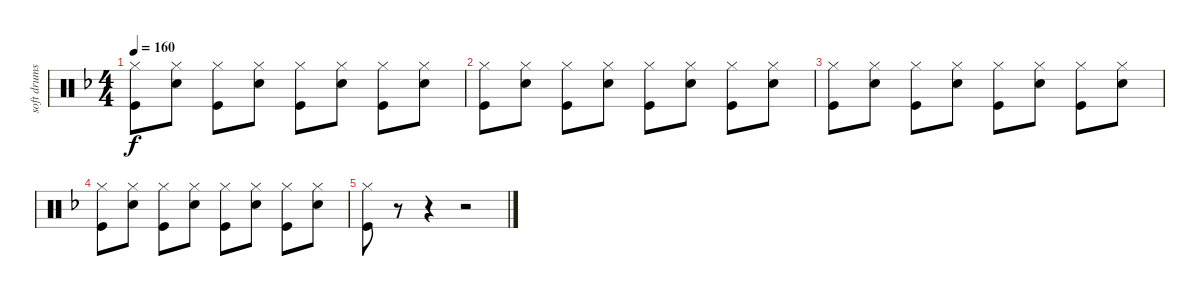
\track ("soft drums" "soft drums") {instrument percussion}
\staff {score}
\articulation defaults
\ts (4 4)
\tempo 160
\clef neutral
\ks f
("Hi-Hat (closed)" "Kick (hit)").8{dy f} ("Hi-Hat (closed)" "Snare (hit) 2").8 ("Hi-Hat (closed)" "Kick (hit)").8 ("Hi-Hat (closed)" "Snare (hit) 2").8 ("Hi-Hat (closed)" "Kick (hit)").8 ("Hi-Hat (closed)" "Snare (hit) 2").8 ("Hi-Hat (closed)" "Kick (hit)").8 ("Hi-Hat (closed)" "Snare (hit) 2").8 |
("Hi-Hat (closed)" "Kick (hit)").8 ("Hi-Hat (closed)" "Snare (hit) 2").8 ("Hi-Hat (closed)" "Kick (hit)").8 ("Hi-Hat (closed)" "Snare (hit) 2").8 ("Hi-Hat (closed)" "Kick (hit)").8 ("Hi-Hat (closed)" "Snare (hit) 2").8 ("Hi-Hat (closed)" "Kick (hit)").8 ("Hi-Hat (closed)" "Snare (hit) 2").8 |
("Hi-Hat (closed)" "Kick (hit)").8 ("Hi-Hat (closed)" "Snare (hit) 2").8 ("Hi-Hat (closed)" "Kick (hit)").8 ("Hi-Hat (closed)" "Snare (hit) 2").8 ("Hi-Hat (closed)" "Kick (hit)").8 ("Hi-Hat (closed)" "Snare (hit) 2").8 ("Hi-Hat (closed)" "Kick (hit)").8 ("Hi-Hat (closed)" "Snare (hit) 2").8 |
("Hi-Hat (closed)" "Kick (hit)").8 ("Hi-Hat (closed)" "Snare (hit) 2").8 ("Hi-Hat (closed)" "Kick (hit)").8 ("Hi-Hat (closed)" "Snare (hit) 2").8 ("Hi-Hat (closed)" "Kick (hit)").8 ("Hi-Hat (closed)" "Snare (hit) 2").8 ("Hi-Hat (closed)" "Kick (hit)").8 ("Hi-Hat (closed)" "Snare (hit) 2").8 |
("Hi-Hat (closed)" "Kick (hit)").8 r.8 r.4 r.2
